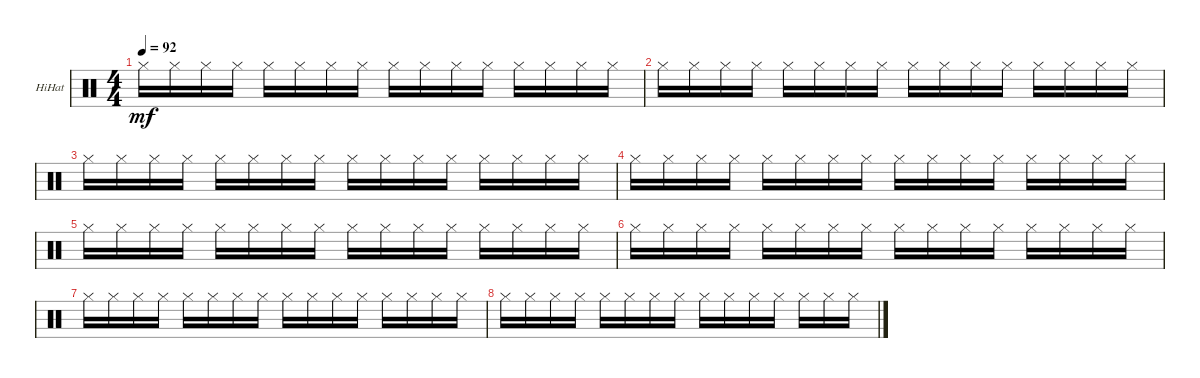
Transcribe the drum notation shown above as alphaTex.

\bracketExtendMode groupsimilarinstruments
\firstSystemTrackNameOrientation horizontal
\otherSystemsTrackNameOrientation horizontal
\track (" HiHat" " HiHat") {instrument percussion}
\staff {score}
\articulation defaults
\ts (4 4)
\tempo 92
\clef neutral
\ks c "Hi-Hat (closed)".16{dy mf} "Hi-Hat (closed)".16 "Hi-Hat (closed)".16 "Hi-Hat (closed)".16 "Hi-Hat (closed)".16 "Hi-Hat (closed)".16 "Hi-Hat (closed)".16 "Hi-Hat (closed)".16 "Hi-Hat (closed)".16 "Hi-Hat (closed)".16 "Hi-Hat (closed)".16 "Hi-Hat (closed)".16 "Hi-Hat (closed)".16 "Hi-Hat (closed)".16 "Hi-Hat (closed)".16 "Hi-Hat (closed)".16
|
"Hi-Hat (closed)".16 "Hi-Hat (closed)".16 "Hi-Hat (closed)".16 "Hi-Hat (closed)".16 "Hi-Hat (closed)".16 "Hi-Hat (closed)".16 "Hi-Hat (closed)".16 "Hi-Hat (closed)".16 "Hi-Hat (closed)".16 "Hi-Hat (closed)".16 "Hi-Hat (closed)".16 "Hi-Hat (closed)".16 "Hi-Hat (closed)".16 "Hi-Hat (closed)".16 "Hi-Hat (closed)".16 "Hi-Hat (closed)".16 |
"Hi-Hat (closed)".16 "Hi-Hat (closed)".16 "Hi-Hat (closed)".16 "Hi-Hat (closed)".16 "Hi-Hat (closed)".16 "Hi-Hat (closed)".16 "Hi-Hat (closed)".16 "Hi-Hat (closed)".16 "Hi-Hat (closed)".16 "Hi-Hat (closed)".16 "Hi-Hat (closed)".16 "Hi-Hat (closed)".16 "Hi-Hat (closed)".16 "Hi-Hat (closed)".16 "Hi-Hat (closed)".16 "Hi-Hat (closed)".16 |
"Hi-Hat (closed)".16 "Hi-Hat (closed)".16 "Hi-Hat (closed)".16 "Hi-Hat (closed)".16 "Hi-Hat (closed)".16 "Hi-Hat (closed)".16 "Hi-Hat (closed)".16 "Hi-Hat (closed)".16 "Hi-Hat (closed)".16 "Hi-Hat (closed)".16 "Hi-Hat (closed)".16 "Hi-Hat (closed)".16 "Hi-Hat (closed)".16 "Hi-Hat (closed)".16 "Hi-Hat (closed)".16 "Hi-Hat (closed)".16 |
"Hi-Hat (closed)".16 "Hi-Hat (closed)".16 "Hi-Hat (closed)".16 "Hi-Hat (closed)".16 "Hi-Hat (closed)".16 "Hi-Hat (closed)".16 "Hi-Hat (closed)".16 "Hi-Hat (closed)".16 "Hi-Hat (closed)".16 "Hi-Hat (closed)".16 "Hi-Hat (closed)".16 "Hi-Hat (closed)".16 "Hi-Hat (closed)".16 "Hi-Hat (closed)".16 "Hi-Hat (closed)".16 "Hi-Hat (closed)".16 |
"Hi-Hat (closed)".16 "Hi-Hat (closed)".16 "Hi-Hat (closed)".16 "Hi-Hat (closed)".16 "Hi-Hat (closed)".16 "Hi-Hat (closed)".16 "Hi-Hat (closed)".16 "Hi-Hat (closed)".16 "Hi-Hat (closed)".16 "Hi-Hat (closed)".16 "Hi-Hat (closed)".16 "Hi-Hat (closed)".16 "Hi-Hat (closed)".16 "Hi-Hat (closed)".16 "Hi-Hat (closed)".16 "Hi-Hat (closed)".16 |
"Hi-Hat (closed)".16 "Hi-Hat (closed)".16 "Hi-Hat (closed)".16 "Hi-Hat (closed)".16 "Hi-Hat (closed)".16 "Hi-Hat (closed)".16 "Hi-Hat (closed)".16 "Hi-Hat (closed)".16 "Hi-Hat (closed)".16 "Hi-Hat (closed)".16 "Hi-Hat (closed)".16 "Hi-Hat (closed)".16 "Hi-Hat (closed)".16 "Hi-Hat (closed)".16 "Hi-Hat (closed)".16 "Hi-Hat (closed)".16 |
"Hi-Hat (closed)".16 "Hi-Hat (closed)".16 "Hi-Hat (closed)".16 "Hi-Hat (closed)".16 "Hi-Hat (closed)".16 "Hi-Hat (closed)".16 "Hi-Hat (closed)".16 "Hi-Hat (closed)".16 "Hi-Hat (closed)".16 "Hi-Hat (closed)".16 "Hi-Hat (closed)".16 "Hi-Hat (closed)".16 "Hi-Hat (closed)".16 "Hi-Hat (closed)".16 "Hi-Hat (closed)".16
